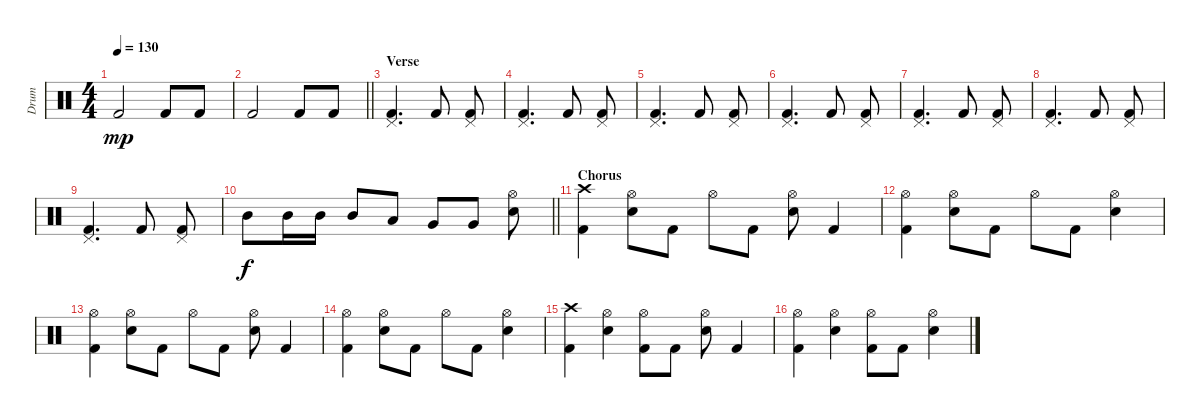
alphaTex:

\track ("Drum" "Drum") {instrument percussion}
\staff {score}
\articulation defaults
\ts (4 4)
\tempo 130
\clef neutral
\ks c "Kick (hit) 2".2{dy mp} "Kick (hit) 2".8 "Kick (hit) 2".8
|
\barLineRight lightlight "Kick (hit) 2".2 "Kick (hit) 2".8 "Kick (hit) 2".8
|
\section ("" "Verse ")
("Pedal Hi-Hat (hit)" "Kick (hit) 2").4{d} "Kick (hit) 2".8 ("Pedal Hi-Hat (hit)" "Kick (hit) 2").8 |
("Pedal Hi-Hat (hit)" "Kick (hit) 2").4{d} "Kick (hit) 2".8 ("Pedal Hi-Hat (hit)" "Kick (hit) 2").8 |
("Pedal Hi-Hat (hit)" "Kick (hit) 2").4{d} "Kick (hit) 2".8 ("Pedal Hi-Hat (hit)" "Kick (hit) 2").8 |
("Pedal Hi-Hat (hit)" "Kick (hit) 2").4{d} "Kick (hit) 2".8 ("Pedal Hi-Hat (hit)" "Kick (hit) 2").8 |
("Pedal Hi-Hat (hit)" "Kick (hit) 2").4{d} "Kick (hit) 2".8 ("Pedal Hi-Hat (hit)" "Kick (hit) 2").8 |
("Pedal Hi-Hat (hit)" "Kick (hit) 2").4{d} "Kick (hit) 2".8 ("Pedal Hi-Hat (hit)" "Kick (hit) 2").8 |
("Pedal Hi-Hat (hit)" "Kick (hit) 2").4{d} "Kick (hit) 2".8 ("Pedal Hi-Hat (hit)" "Kick (hit) 2").8 |
\barLineRight lightlight "Mid Tom (hit)".8{dy f} "Mid Tom (hit)".16 "Mid Tom (hit)".16 "Mid Tom (hit)".8 "Low Tom (hit)".8 "Very Low Tom (hit)".8 "Very Low Tom (hit)".8
("Hi-Hat (open)" "Electric Snare (hit)").8 |
\section ("" "Chorus")
("Crash high (hit)" "Kick (hit) 2").4 ("Hi-Hat (open)" "Electric Snare (hit)").8 "Kick (hit) 2".8 "Hi-Hat (open)".8 "Kick (hit) 2".8 ("Hi-Hat (open)" "Electric Snare (hit)").8 "Kick (hit) 2".4 |
("Hi-Hat (open)" "Kick (hit) 2").4 ("Hi-Hat (open)" "Electric Snare (hit)").8 "Kick (hit) 2".8 "Hi-Hat (open)".8 "Kick (hit) 2".8 ("Hi-Hat (open)" "Electric Snare (hit)").4 |
("Hi-Hat (open)" "Kick (hit) 2").4 ("Hi-Hat (open)" "Electric Snare (hit)").8 "Kick (hit) 2".8 "Hi-Hat (open)".8 "Kick (hit) 2".8 ("Hi-Hat (open)" "Electric Snare (hit)").8 "Kick (hit) 2".4 |
("Hi-Hat (open)" "Kick (hit) 2").4 ("Hi-Hat (open)" "Electric Snare (hit)").8 "Kick (hit) 2".8 "Hi-Hat (open)".8 "Kick (hit) 2".8 ("Hi-Hat (open)" "Electric Snare (hit)").4 |
("Crash high (hit)" "Kick (hit) 2").4 ("Hi-Hat (open)" "Electric Snare (hit)").4 ("Hi-Hat (open)" "Kick (hit) 2").8 "Kick (hit) 2".8 ("Hi-Hat (open)" "Electric Snare (hit)").8 "Kick (hit) 2".4 |
("Hi-Hat (open)" "Kick (hit) 2").4 ("Hi-Hat (open)" "Electric Snare (hit)").4 ("Hi-Hat (open)" "Kick (hit) 2").8 "Kick (hit) 2".8 ("Hi-Hat (open)" "Electric Snare (hit)").4
